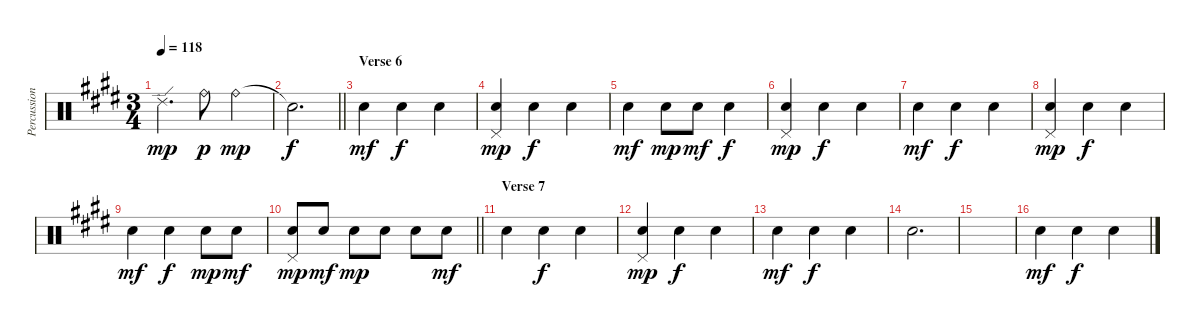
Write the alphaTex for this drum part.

\track ("Percussion" "Percussion") {instrument percussion}
\staff {score}
\articulation defaults
\ts (3 4)
\tempo 118
\clef neutral
\ks e "Ride (edge) 2".4{d dy mp} "Ride (bell)".8{dy p} "Ride (bell)".4{dy mp}
|
\barLineRight lightlight "Snare (hit)"{t}.2{d dy f}
|
\section ("" "Verse 6")
"Snare (hit) 2".4{dy mf} "Snare (hit) 2".4{dy f} "Snare (hit) 2".4 |
("Hand Clap (hit)" "Pedal Hi-Hat (hit)").4{dy mp} "Snare (hit) 2".4{dy f} "Snare (hit) 2".4 |
"Snare (hit) 2".4{dy mf} "Snare (hit) 2".8{dy mp} "Snare (hit) 2".8{dy mf} "Snare (hit) 2".4{dy f} |
("Hand Clap (hit)" "Pedal Hi-Hat (hit)").4{dy mp} "Snare (hit) 2".4{dy f} "Snare (hit) 2".4 |
"Snare (hit) 2".4{dy mf} "Snare (hit) 2".4{dy f} "Snare (hit) 2".4 |
("Hand Clap (hit)" "Pedal Hi-Hat (hit)").4{dy mp} "Snare (hit) 2".4{dy f} "Snare (hit) 2".4 |
"Snare (hit) 2".4{dy mf} "Snare (hit) 2".4{dy f} "Snare (hit) 2".8{dy mp} "Snare (hit) 2".8{dy mf} |
\barLineRight lightlight
("Hand Clap (hit)" "Pedal Hi-Hat (hit)").8{dy mp} "Snare (hit) 2".8{dy mf} "Snare (hit) 2".8{dy mp} "Snare (hit) 2".8 "Hand Clap (hit)".8 "Hand Clap (hit)".8{dy mf} |
\section ("" "Verse 7")
"Snare (hit) 2".4 "Snare (hit) 2".4{dy f} "Snare (hit) 2".4 |
("Hand Clap (hit)" "Pedal Hi-Hat (hit)").4{dy mp} "Snare (hit) 2".4{dy f} "Snare (hit) 2".4 |
"Snare (hit) 2".4{dy mf} "Snare (hit) 2".4{dy f} "Snare (hit) 2".4 |
"Hand Clap (hit)".2{d} |
|
"Snare (hit) 2".4{dy mf} "Snare (hit) 2".4{dy f} "Snare (hit) 2".4
